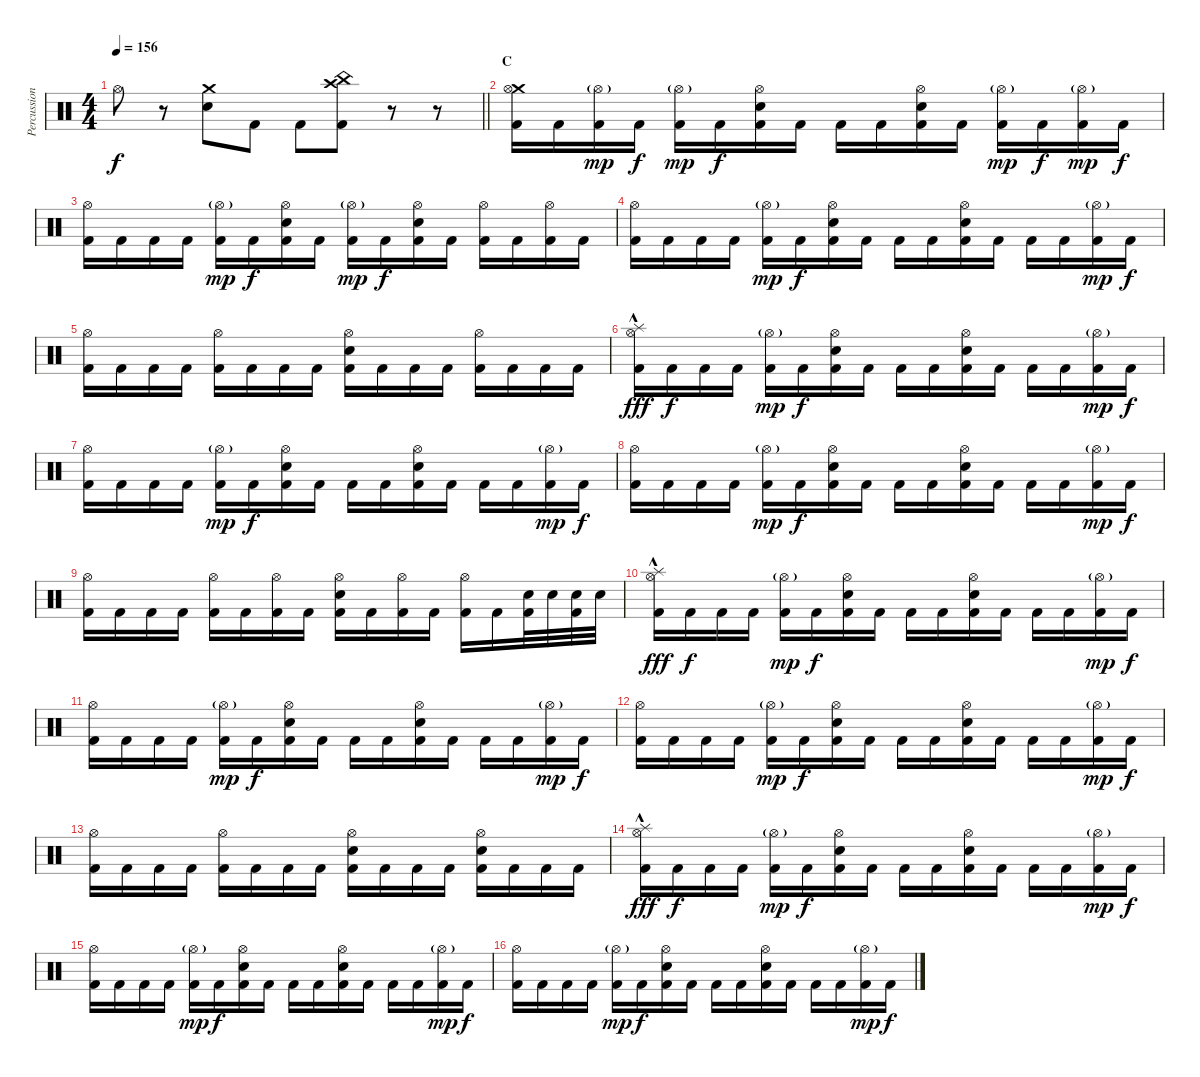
\track ("Percussion" "Percussion") {instrument percussion}
\staff {score}
\articulation defaults
\ts (4 4)
\tempo 156
\clef neutral
\barLineRight lightlight
\ks c "Hi-Hat (open)".8{dy f}
r.8 ("Crash medium (hit)" "Electric Snare (hit)").8 "Kick (hit) 2".8 "Kick (hit) 2".8 ("Crash high (hit)" "China (hit)" "Kick (hit) 2").8 r.8 r.8 |
\section ("" "C")
("Crash medium (hit)" "Hi-Hat (open)" "Kick (hit) 2").16 "Kick (hit) 2".16 ("Hi-Hat (open)"{g} "Kick (hit) 2").16{dy mp} "Kick (hit) 2".16{dy f} ("Hi-Hat (open)"{g} "Kick (hit) 2").16{dy mp} "Kick (hit) 2".16{dy f} ("Hi-Hat (open)" "Electric Snare (hit)" "Kick (hit) 2").16 "Kick (hit) 2".16 "Kick (hit) 2".16 "Kick (hit) 2".16 ("Hi-Hat (open)" "Electric Snare (hit)" "Kick (hit) 2").16 "Kick (hit) 2".16 ("Hi-Hat (open)"{g} "Kick (hit) 2").16{dy mp} "Kick (hit) 2".16{dy f} ("Hi-Hat (open)"{g} "Kick (hit) 2").16{dy mp} "Kick (hit) 2".16{dy f} |
("Hi-Hat (open)" "Kick (hit) 2").16 "Kick (hit) 2".16 "Kick (hit) 2".16 "Kick (hit) 2".16 ("Hi-Hat (open)"{g} "Kick (hit) 2").16{dy mp} "Kick (hit) 2".16{dy f} ("Hi-Hat (open)" "Electric Snare (hit)" "Kick (hit) 2").16 "Kick (hit) 2".16 ("Hi-Hat (open)"{g} "Kick (hit) 2").16{dy mp} "Kick (hit) 2".16{dy f} ("Hi-Hat (open)" "Electric Snare (hit)" "Kick (hit) 2").16 "Kick (hit) 2".16 ("Hi-Hat (open)" "Kick (hit) 2").16 "Kick (hit) 2".16 ("Hi-Hat (open)" "Kick (hit) 2").16 "Kick (hit) 2".16 |
("Hi-Hat (open)" "Kick (hit) 2").16 "Kick (hit) 2".16 "Kick (hit) 2".16 "Kick (hit) 2".16 ("Hi-Hat (open)"{g} "Kick (hit) 2").16{dy mp} "Kick (hit) 2".16{dy f} ("Hi-Hat (open)" "Electric Snare (hit)" "Kick (hit) 2").16 "Kick (hit) 2".16 "Kick (hit) 2".16 "Kick (hit) 2".16 ("Hi-Hat (open)" "Electric Snare (hit)" "Kick (hit) 2").16 "Kick (hit) 2".16 "Kick (hit) 2".16 "Kick (hit) 2".16 ("Hi-Hat (open)"{g} "Kick (hit) 2").16{dy mp} "Kick (hit) 2".16{dy f} |
("Hi-Hat (open)" "Kick (hit) 2").16 "Kick (hit) 2".16 "Kick (hit) 2".16 "Kick (hit) 2".16 ("Hi-Hat (open)" "Kick (hit) 2").16 "Kick (hit) 2".16 "Kick (hit) 2".16 "Kick (hit) 2".16 ("Hi-Hat (open)" "Electric Snare (hit)" "Kick (hit) 2").16 "Kick (hit) 2".16 "Kick (hit) 2".16 "Kick (hit) 2".16 ("Hi-Hat (open)" "Kick (hit) 2").16 "Kick (hit) 2".16 "Kick (hit) 2".16 "Kick (hit) 2".16 |
("Splash (hit)"{hac} "Hi-Hat (open)" "Kick (hit) 2").16{dy fff} "Kick (hit) 2".16{dy f} "Kick (hit) 2".16 "Kick (hit) 2".16 ("Hi-Hat (open)"{g} "Kick (hit) 2").16{dy mp} "Kick (hit) 2".16{dy f} ("Hi-Hat (open)" "Electric Snare (hit)" "Kick (hit) 2").16 "Kick (hit) 2".16 "Kick (hit) 2".16 "Kick (hit) 2".16 ("Hi-Hat (open)" "Electric Snare (hit)" "Kick (hit) 2").16 "Kick (hit) 2".16 "Kick (hit) 2".16 "Kick (hit) 2".16 ("Hi-Hat (open)"{g} "Kick (hit) 2").16{dy mp} "Kick (hit) 2".16{dy f} |
("Hi-Hat (open)" "Kick (hit) 2").16 "Kick (hit) 2".16 "Kick (hit) 2".16 "Kick (hit) 2".16 ("Hi-Hat (open)"{g} "Kick (hit) 2").16{dy mp} "Kick (hit) 2".16{dy f} ("Hi-Hat (open)" "Electric Snare (hit)" "Kick (hit) 2").16 "Kick (hit) 2".16 "Kick (hit) 2".16 "Kick (hit) 2".16 ("Hi-Hat (open)" "Electric Snare (hit)" "Kick (hit) 2").16 "Kick (hit) 2".16 "Kick (hit) 2".16 "Kick (hit) 2".16 ("Hi-Hat (open)"{g} "Kick (hit) 2").16{dy mp} "Kick (hit) 2".16{dy f} |
("Hi-Hat (open)" "Kick (hit) 2").16 "Kick (hit) 2".16 "Kick (hit) 2".16 "Kick (hit) 2".16 ("Hi-Hat (open)"{g} "Kick (hit) 2").16{dy mp} "Kick (hit) 2".16{dy f} ("Hi-Hat (open)" "Electric Snare (hit)" "Kick (hit) 2").16 "Kick (hit) 2".16 "Kick (hit) 2".16 "Kick (hit) 2".16 ("Hi-Hat (open)" "Electric Snare (hit)" "Kick (hit) 2").16 "Kick (hit) 2".16 "Kick (hit) 2".16 "Kick (hit) 2".16 ("Hi-Hat (open)"{g} "Kick (hit) 2").16{dy mp} "Kick (hit) 2".16{dy f} |
("Hi-Hat (open)" "Kick (hit) 2").16 "Kick (hit) 2".16 "Kick (hit) 2".16 "Kick (hit) 2".16 ("Hi-Hat (open)" "Kick (hit) 2").16 "Kick (hit) 2".16 ("Hi-Hat (open)" "Kick (hit) 2").16 "Kick (hit) 2".16 ("Hi-Hat (open)" "Electric Snare (hit)" "Kick (hit) 2").16 "Kick (hit) 2".16 ("Hi-Hat (open)" "Kick (hit) 2").16 "Kick (hit) 2".16 ("Hi-Hat (open)" "Kick (hit) 2").16 "Kick (hit) 2".16 ("Electric Snare (hit)" "Kick (hit) 2").32 "Electric Snare (hit)".32 ("Electric Snare (hit)" "Kick (hit) 2").32 "Electric Snare (hit)".32 |
("Splash (hit)"{hac} "Hi-Hat (open)" "Kick (hit) 2").16{dy fff} "Kick (hit) 2".16{dy f} "Kick (hit) 2".16 "Kick (hit) 2".16 ("Hi-Hat (open)"{g} "Kick (hit) 2").16{dy mp} "Kick (hit) 2".16{dy f} ("Hi-Hat (open)" "Electric Snare (hit)" "Kick (hit) 2").16 "Kick (hit) 2".16 "Kick (hit) 2".16 "Kick (hit) 2".16 ("Hi-Hat (open)" "Electric Snare (hit)" "Kick (hit) 2").16 "Kick (hit) 2".16 "Kick (hit) 2".16 "Kick (hit) 2".16 ("Hi-Hat (open)"{g} "Kick (hit) 2").16{dy mp} "Kick (hit) 2".16{dy f} |
("Hi-Hat (open)" "Kick (hit) 2").16 "Kick (hit) 2".16 "Kick (hit) 2".16 "Kick (hit) 2".16 ("Hi-Hat (open)"{g} "Kick (hit) 2").16{dy mp} "Kick (hit) 2".16{dy f} ("Hi-Hat (open)" "Electric Snare (hit)" "Kick (hit) 2").16 "Kick (hit) 2".16 "Kick (hit) 2".16 "Kick (hit) 2".16 ("Hi-Hat (open)" "Electric Snare (hit)" "Kick (hit) 2").16 "Kick (hit) 2".16 "Kick (hit) 2".16 "Kick (hit) 2".16 ("Hi-Hat (open)"{g} "Kick (hit) 2").16{dy mp} "Kick (hit) 2".16{dy f} |
("Hi-Hat (open)" "Kick (hit) 2").16 "Kick (hit) 2".16 "Kick (hit) 2".16 "Kick (hit) 2".16 ("Hi-Hat (open)"{g} "Kick (hit) 2").16{dy mp} "Kick (hit) 2".16{dy f} ("Hi-Hat (open)" "Electric Snare (hit)" "Kick (hit) 2").16 "Kick (hit) 2".16 "Kick (hit) 2".16 "Kick (hit) 2".16 ("Hi-Hat (open)" "Electric Snare (hit)" "Kick (hit) 2").16 "Kick (hit) 2".16 "Kick (hit) 2".16 "Kick (hit) 2".16 ("Hi-Hat (open)"{g} "Kick (hit) 2").16{dy mp} "Kick (hit) 2".16{dy f} |
("Hi-Hat (open)" "Kick (hit) 2").16 "Kick (hit) 2".16 "Kick (hit) 2".16 "Kick (hit) 2".16 ("Hi-Hat (open)" "Kick (hit) 2").16 "Kick (hit) 2".16 "Kick (hit) 2".16 "Kick (hit) 2".16 ("Hi-Hat (open)" "Electric Snare (hit)" "Kick (hit) 2").16 "Kick (hit) 2".16 "Kick (hit) 2".16 "Kick (hit) 2".16 ("Hi-Hat (open)" "Electric Snare (hit)" "Kick (hit) 2").16 "Kick (hit) 2".16 "Kick (hit) 2".16 "Kick (hit) 2".16 |
("Splash (hit)"{hac} "Hi-Hat (open)" "Kick (hit) 2").16{dy fff} "Kick (hit) 2".16{dy f} "Kick (hit) 2".16 "Kick (hit) 2".16 ("Hi-Hat (open)"{g} "Kick (hit) 2").16{dy mp} "Kick (hit) 2".16{dy f} ("Hi-Hat (open)" "Electric Snare (hit)" "Kick (hit) 2").16 "Kick (hit) 2".16 "Kick (hit) 2".16 "Kick (hit) 2".16 ("Hi-Hat (open)" "Electric Snare (hit)" "Kick (hit) 2").16 "Kick (hit) 2".16 "Kick (hit) 2".16 "Kick (hit) 2".16 ("Hi-Hat (open)"{g} "Kick (hit) 2").16{dy mp} "Kick (hit) 2".16{dy f} |
("Hi-Hat (open)" "Kick (hit) 2").16 "Kick (hit) 2".16 "Kick (hit) 2".16 "Kick (hit) 2".16 ("Hi-Hat (open)"{g} "Kick (hit) 2").16{dy mp} "Kick (hit) 2".16{dy f} ("Hi-Hat (open)" "Electric Snare (hit)" "Kick (hit) 2").16 "Kick (hit) 2".16 "Kick (hit) 2".16 "Kick (hit) 2".16 ("Hi-Hat (open)" "Electric Snare (hit)" "Kick (hit) 2").16 "Kick (hit) 2".16 "Kick (hit) 2".16 "Kick (hit) 2".16 ("Hi-Hat (open)"{g} "Kick (hit) 2").16{dy mp} "Kick (hit) 2".16{dy f} |
("Hi-Hat (open)" "Kick (hit) 2").16 "Kick (hit) 2".16 "Kick (hit) 2".16 "Kick (hit) 2".16 ("Hi-Hat (open)"{g} "Kick (hit) 2").16{dy mp} "Kick (hit) 2".16{dy f} ("Hi-Hat (open)" "Electric Snare (hit)" "Kick (hit) 2").16 "Kick (hit) 2".16 "Kick (hit) 2".16 "Kick (hit) 2".16 ("Hi-Hat (open)" "Electric Snare (hit)" "Kick (hit) 2").16 "Kick (hit) 2".16 "Kick (hit) 2".16 "Kick (hit) 2".16 ("Hi-Hat (open)"{g} "Kick (hit) 2").16{dy mp} "Kick (hit) 2".16{dy f}
